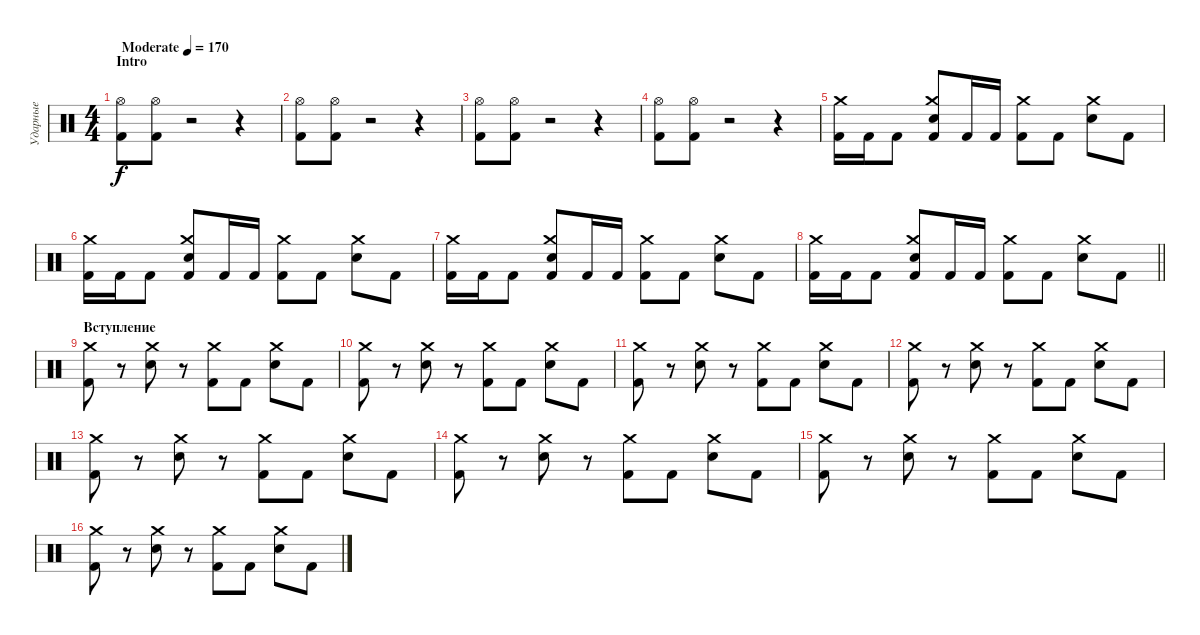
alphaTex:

\track ("Ударные" "Ударные") {instrument percussion}
\staff {score}
\articulation defaults
\ts (4 4)
\section ("" "Intro")
\tempo (170 "Moderate")
\clef neutral
\ks c
("Hi-Hat (open)" "Kick (hit) 2").8{dy f} ("Hi-Hat (open)" "Kick (hit) 2").8 r.2 r.4 |
("Hi-Hat (open)" "Kick (hit) 2").8 ("Hi-Hat (open)" "Kick (hit) 2").8 r.2 r.4 |
("Hi-Hat (open)" "Kick (hit) 2").8 ("Hi-Hat (open)" "Kick (hit) 2").8 r.2 r.4 |
("Hi-Hat (open)" "Kick (hit) 2").8 ("Hi-Hat (open)" "Kick (hit) 2").8 r.2 r.4 |
("Crash medium (hit)" "Kick (hit) 2").16 "Kick (hit) 2".16 "Kick (hit) 2".8 ("Crash medium (hit)" "Electric Snare (hit)" "Kick (hit) 2").8 "Kick (hit) 2".16 "Kick (hit) 2".16 ("Crash medium (hit)" "Kick (hit) 2").8 "Kick (hit) 2".8 ("Crash medium (hit)" "Electric Snare (hit)").8 "Kick (hit) 2".8 |
("Crash medium (hit)" "Kick (hit) 2").16 "Kick (hit) 2".16 "Kick (hit) 2".8 ("Crash medium (hit)" "Electric Snare (hit)" "Kick (hit) 2").8 "Kick (hit) 2".16 "Kick (hit) 2".16 ("Crash medium (hit)" "Kick (hit) 2").8 "Kick (hit) 2".8 ("Crash medium (hit)" "Electric Snare (hit)").8 "Kick (hit) 2".8 |
("Crash medium (hit)" "Kick (hit) 2").16 "Kick (hit) 2".16 "Kick (hit) 2".8 ("Crash medium (hit)" "Electric Snare (hit)" "Kick (hit) 2").8 "Kick (hit) 2".16 "Kick (hit) 2".16 ("Crash medium (hit)" "Kick (hit) 2").8 "Kick (hit) 2".8 ("Crash medium (hit)" "Electric Snare (hit)").8 "Kick (hit) 2".8 |
\barLineRight lightlight
("Crash medium (hit)" "Kick (hit) 2").16 "Kick (hit) 2".16 "Kick (hit) 2".8 ("Crash medium (hit)" "Electric Snare (hit)" "Kick (hit) 2").8 "Kick (hit) 2".16 "Kick (hit) 2".16 ("Crash medium (hit)" "Kick (hit) 2").8 "Kick (hit) 2".8 ("Crash medium (hit)" "Electric Snare (hit)").8 "Kick (hit) 2".8 |
\section ("" "Вступление")
("Crash medium (hit)" "Kick (hit) 2").8 r.8 ("Crash medium (hit)" "Electric Snare (hit)").8 r.8 ("Crash medium (hit)" "Kick (hit) 2").8 "Kick (hit) 2".8 ("Crash medium (hit)" "Electric Snare (hit)").8 "Kick (hit) 2".8 |
("Crash medium (hit)" "Kick (hit) 2").8 r.8 ("Crash medium (hit)" "Electric Snare (hit)").8 r.8 ("Crash medium (hit)" "Kick (hit) 2").8 "Kick (hit) 2".8 ("Crash medium (hit)" "Electric Snare (hit)").8 "Kick (hit) 2".8 |
("Crash medium (hit)" "Kick (hit) 2").8 r.8 ("Crash medium (hit)" "Electric Snare (hit)").8 r.8 ("Crash medium (hit)" "Kick (hit) 2").8 "Kick (hit) 2".8 ("Crash medium (hit)" "Electric Snare (hit)").8 "Kick (hit) 2".8 |
("Crash medium (hit)" "Kick (hit) 2").8 r.8 ("Crash medium (hit)" "Electric Snare (hit)").8 r.8 ("Crash medium (hit)" "Kick (hit) 2").8 "Kick (hit) 2".8 ("Crash medium (hit)" "Electric Snare (hit)").8 "Kick (hit) 2".8 |
("Crash medium (hit)" "Kick (hit) 2").8 r.8 ("Crash medium (hit)" "Electric Snare (hit)").8 r.8 ("Crash medium (hit)" "Kick (hit) 2").8 "Kick (hit) 2".8 ("Crash medium (hit)" "Electric Snare (hit)").8 "Kick (hit) 2".8 |
("Crash medium (hit)" "Kick (hit) 2").8 r.8 ("Crash medium (hit)" "Electric Snare (hit)").8 r.8 ("Crash medium (hit)" "Kick (hit) 2").8 "Kick (hit) 2".8 ("Crash medium (hit)" "Electric Snare (hit)").8 "Kick (hit) 2".8 |
("Crash medium (hit)" "Kick (hit) 2").8 r.8 ("Crash medium (hit)" "Electric Snare (hit)").8 r.8 ("Crash medium (hit)" "Kick (hit) 2").8 "Kick (hit) 2".8 ("Crash medium (hit)" "Electric Snare (hit)").8 "Kick (hit) 2".8 |
("Crash medium (hit)" "Kick (hit) 2").8 r.8 ("Crash medium (hit)" "Electric Snare (hit)").8 r.8 ("Crash medium (hit)" "Kick (hit) 2").8 "Kick (hit) 2".8 ("Crash medium (hit)" "Electric Snare (hit)").8 "Kick (hit) 2".8
